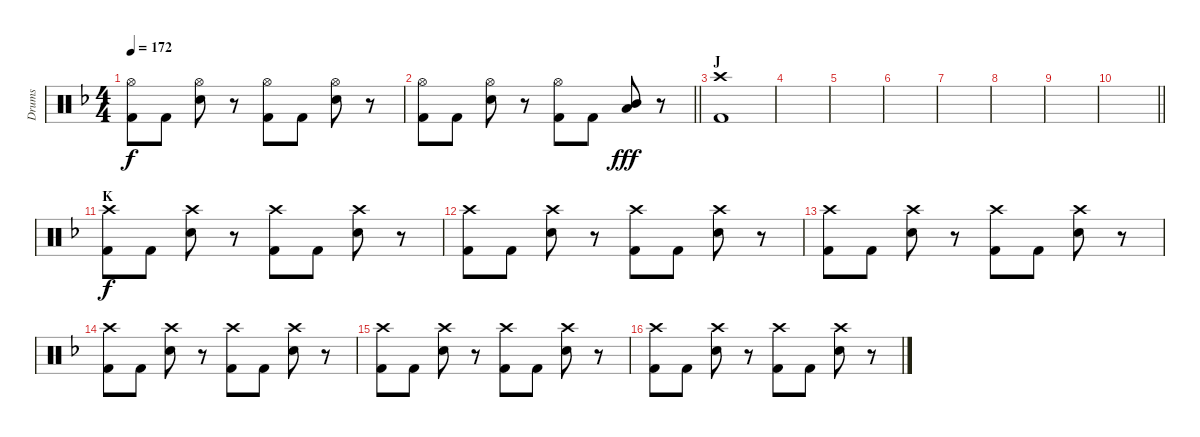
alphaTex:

\track ("Drums" "Drums") {instrument percussion}
\staff {score}
\articulation defaults
\ts (4 4)
\tempo 172
\clef neutral
\ks f
("Hi-Hat (open)" "Kick (hit) 2").8{dy f} "Kick (hit) 2".8 ("Hi-Hat (open)" "Electric Snare (hit)").8 r.8 ("Hi-Hat (open)" "Kick (hit) 2").8 "Kick (hit) 2".8 ("Hi-Hat (open)" "Electric Snare (hit)").8 r.8 |
\barLineRight lightlight
("Hi-Hat (open)" "Kick (hit) 2").8 "Kick (hit) 2".8 ("Hi-Hat (open)" "Electric Snare (hit)").8 r.8 ("Hi-Hat (open)" "Kick (hit) 2").8 "Kick (hit) 2".8 ("Mid Tom (hit)" "Low Tom (hit)").8{dy fff} r.8 |
\section ("" "J")
("Crash high (hit)" "Kick (hit) 2").1 |
|
|
|
|
|
|
\barLineRight lightlight
|
\section ("" "K")
("Crash high (hit)" "Kick (hit) 2").8{dy f} "Kick (hit) 2".8 ("Crash high (hit)" "Electric Snare (hit)").8 r.8 ("Crash high (hit)" "Kick (hit) 2").8 "Kick (hit) 2".8 ("Crash high (hit)" "Electric Snare (hit)").8 r.8 |
("Crash high (hit)" "Kick (hit) 2").8 "Kick (hit) 2".8 ("Crash high (hit)" "Electric Snare (hit)").8 r.8 ("Crash high (hit)" "Kick (hit) 2").8 "Kick (hit) 2".8 ("Crash high (hit)" "Electric Snare (hit)").8 r.8 |
("Crash high (hit)" "Kick (hit) 2").8 "Kick (hit) 2".8 ("Crash high (hit)" "Electric Snare (hit)").8 r.8 ("Crash high (hit)" "Kick (hit) 2").8 "Kick (hit) 2".8 ("Crash high (hit)" "Electric Snare (hit)").8 r.8 |
("Crash high (hit)" "Kick (hit) 2").8 "Kick (hit) 2".8 ("Crash high (hit)" "Electric Snare (hit)").8 r.8 ("Crash high (hit)" "Kick (hit) 2").8 "Kick (hit) 2".8 ("Crash high (hit)" "Electric Snare (hit)").8 r.8 |
("Crash high (hit)" "Kick (hit) 2").8 "Kick (hit) 2".8 ("Crash high (hit)" "Electric Snare (hit)").8 r.8 ("Crash high (hit)" "Kick (hit) 2").8 "Kick (hit) 2".8 ("Crash high (hit)" "Electric Snare (hit)").8 r.8 |
("Crash high (hit)" "Kick (hit) 2").8 "Kick (hit) 2".8 ("Crash high (hit)" "Electric Snare (hit)").8 r.8 ("Crash high (hit)" "Kick (hit) 2").8 "Kick (hit) 2".8 ("Crash high (hit)" "Electric Snare (hit)").8 r.8
